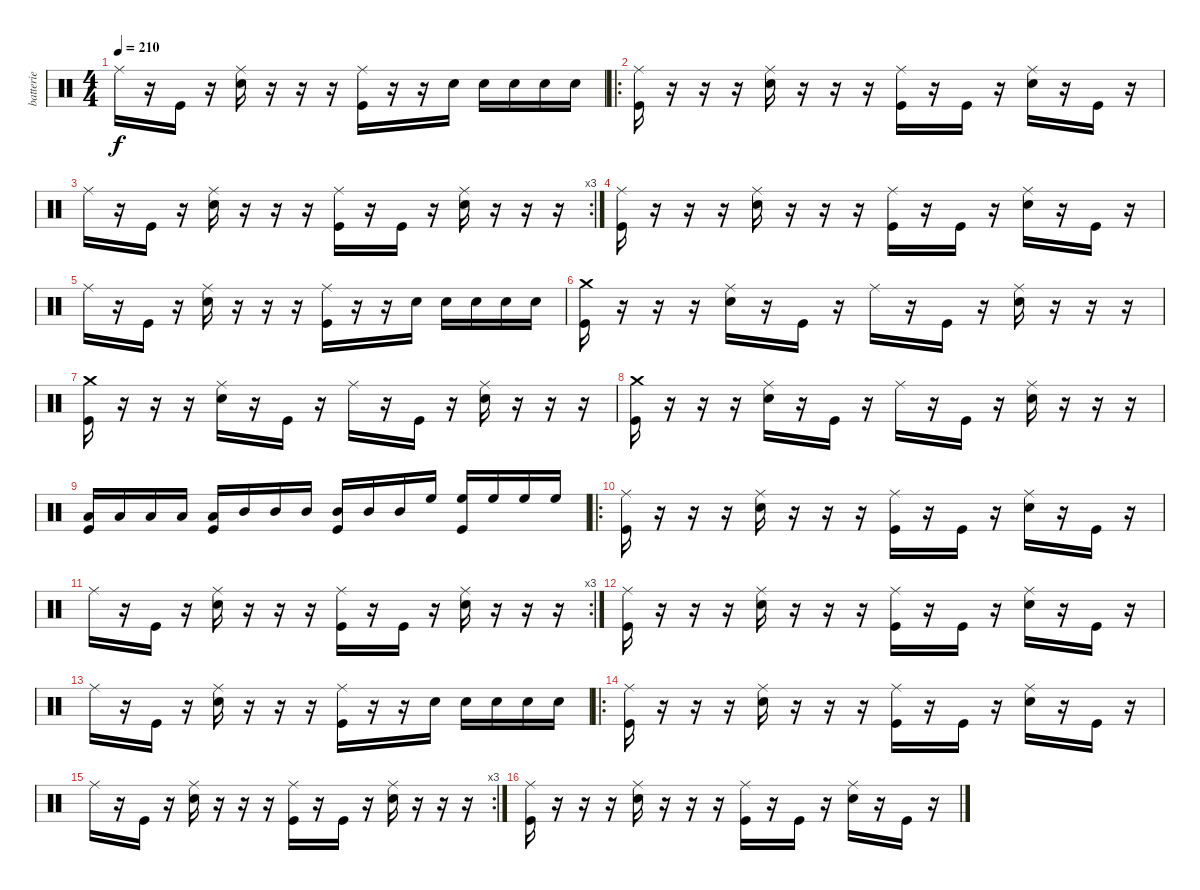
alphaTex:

\track ("batterie " "batterie ") {instrument percussion}
\staff {score}
\articulation defaults
\ts (4 4)
\tempo 210
\clef neutral
\ks c "Ride (middle)".16{dy f}
r.16 "Kick (hit)".16 r.16 ("Ride (middle)" "Snare (hit) 2").16 r.16 r.16 r.16 ("Ride (middle)" "Kick (hit)").16 r.16 r.16 "Snare (hit) 2".16 "Snare (hit) 2".16 "Snare (hit) 2".16 "Snare (hit) 2".16 "Snare (hit) 2".16 |
\ro
("Ride (middle)" "Kick (hit)").16 r.16 r.16 r.16 ("Ride (middle)" "Snare (hit) 2").16 r.16 r.16 r.16 ("Ride (middle)" "Kick (hit)").16 r.16 "Kick (hit)".16 r.16 ("Ride (middle)" "Snare (hit) 2").16 r.16 "Kick (hit)".16 r.16 |
\rc 3 "Ride (middle)".16
r.16 "Kick (hit)".16 r.16 ("Ride (middle)" "Snare (hit) 2").16 r.16 r.16 r.16 ("Ride (middle)" "Kick (hit)").16 r.16 "Kick (hit)".16 r.16 ("Ride (middle)" "Snare (hit) 2").16 r.16 r.16 r.16 |
("Ride (middle)" "Kick (hit)").16 r.16 r.16 r.16 ("Ride (middle)" "Snare (hit) 2").16 r.16 r.16 r.16 ("Ride (middle)" "Kick (hit)").16 r.16 "Kick (hit)".16 r.16 ("Ride (middle)" "Snare (hit) 2").16 r.16 "Kick (hit)".16 r.16 |
"Ride (middle)".16 r.16 "Kick (hit)".16 r.16 ("Ride (middle)" "Snare (hit) 2").16 r.16 r.16 r.16 ("Ride (middle)" "Kick (hit)").16 r.16 r.16 "Snare (hit) 2".16 "Snare (hit) 2".16 "Snare (hit) 2".16 "Snare (hit) 2".16 "Snare (hit) 2".16 |
("Crash medium (hit)" "Kick (hit)").16 r.16 r.16 r.16 ("Ride (middle)" "Snare (hit) 2").16 r.16 "Kick (hit)".16 r.16 "Ride (middle)".16 r.16 "Kick (hit)".16 r.16 ("Ride (middle)" "Snare (hit) 2").16 r.16 r.16 r.16 |
("Crash medium (hit)" "Kick (hit)").16 r.16 r.16 r.16 ("Ride (middle)" "Snare (hit) 2").16 r.16 "Kick (hit)".16 r.16 "Ride (middle)".16 r.16 "Kick (hit)".16 r.16 ("Ride (middle)" "Snare (hit) 2").16 r.16 r.16 r.16 |
("Crash medium (hit)" "Kick (hit)").16 r.16 r.16 r.16 ("Ride (middle)" "Snare (hit) 2").16 r.16 "Kick (hit)".16 r.16 "Ride (middle)".16 r.16 "Kick (hit)".16 r.16 ("Ride (middle)" "Snare (hit) 2").16 r.16 r.16 r.16 |
("Low Tom (hit)" "Kick (hit)").16 "Low Tom (hit)".16 "Low Tom (hit)".16 "Low Tom (hit)".16 ("Low Tom (hit)" "Kick (hit)").16 "Mid Tom (hit)".16 "Mid Tom (hit)".16 "Mid Tom (hit)".16 ("Mid Tom (hit)" "Kick (hit)").16 "Mid Tom (hit)".16 "Mid Tom (hit)".16 "High Floor Tom (hit)".16 ("High Floor Tom (hit)" "Kick (hit)").16 "High Floor Tom (hit)".16 "High Floor Tom (hit)".16 "High Floor Tom (hit)".16 |
\ro
("Ride (middle)" "Kick (hit)").16 r.16 r.16 r.16 ("Ride (middle)" "Snare (hit) 2").16 r.16 r.16 r.16 ("Ride (middle)" "Kick (hit)").16 r.16 "Kick (hit)".16 r.16 ("Ride (middle)" "Snare (hit) 2").16 r.16 "Kick (hit)".16 r.16 |
\rc 3 "Ride (middle)".16
r.16 "Kick (hit)".16 r.16 ("Ride (middle)" "Snare (hit) 2").16 r.16 r.16 r.16 ("Ride (middle)" "Kick (hit)").16 r.16 "Kick (hit)".16 r.16 ("Ride (middle)" "Snare (hit) 2").16 r.16 r.16 r.16 |
("Ride (middle)" "Kick (hit)").16 r.16 r.16 r.16 ("Ride (middle)" "Snare (hit) 2").16 r.16 r.16 r.16 ("Ride (middle)" "Kick (hit)").16 r.16 "Kick (hit)".16 r.16 ("Ride (middle)" "Snare (hit) 2").16 r.16 "Kick (hit)".16 r.16 |
"Ride (middle)".16 r.16 "Kick (hit)".16 r.16 ("Ride (middle)" "Snare (hit) 2").16 r.16 r.16 r.16 ("Ride (middle)" "Kick (hit)").16 r.16 r.16 "Snare (hit) 2".16 "Snare (hit) 2".16 "Snare (hit) 2".16 "Snare (hit) 2".16 "Snare (hit) 2".16 |
\ro
("Ride (middle)" "Kick (hit)").16 r.16 r.16 r.16 ("Ride (middle)" "Snare (hit) 2").16 r.16 r.16 r.16 ("Ride (middle)" "Kick (hit)").16 r.16 "Kick (hit)".16 r.16 ("Ride (middle)" "Snare (hit) 2").16 r.16 "Kick (hit)".16 r.16 |
\rc 3 "Ride (middle)".16
r.16 "Kick (hit)".16 r.16 ("Ride (middle)" "Snare (hit) 2").16 r.16 r.16 r.16 ("Ride (middle)" "Kick (hit)").16 r.16 "Kick (hit)".16 r.16 ("Ride (middle)" "Snare (hit) 2").16 r.16 r.16 r.16 |
("Ride (middle)" "Kick (hit)").16 r.16 r.16 r.16 ("Ride (middle)" "Snare (hit) 2").16 r.16 r.16 r.16 ("Ride (middle)" "Kick (hit)").16 r.16 "Kick (hit)".16 r.16 ("Ride (middle)" "Snare (hit) 2").16 r.16 "Kick (hit)".16 r.16
